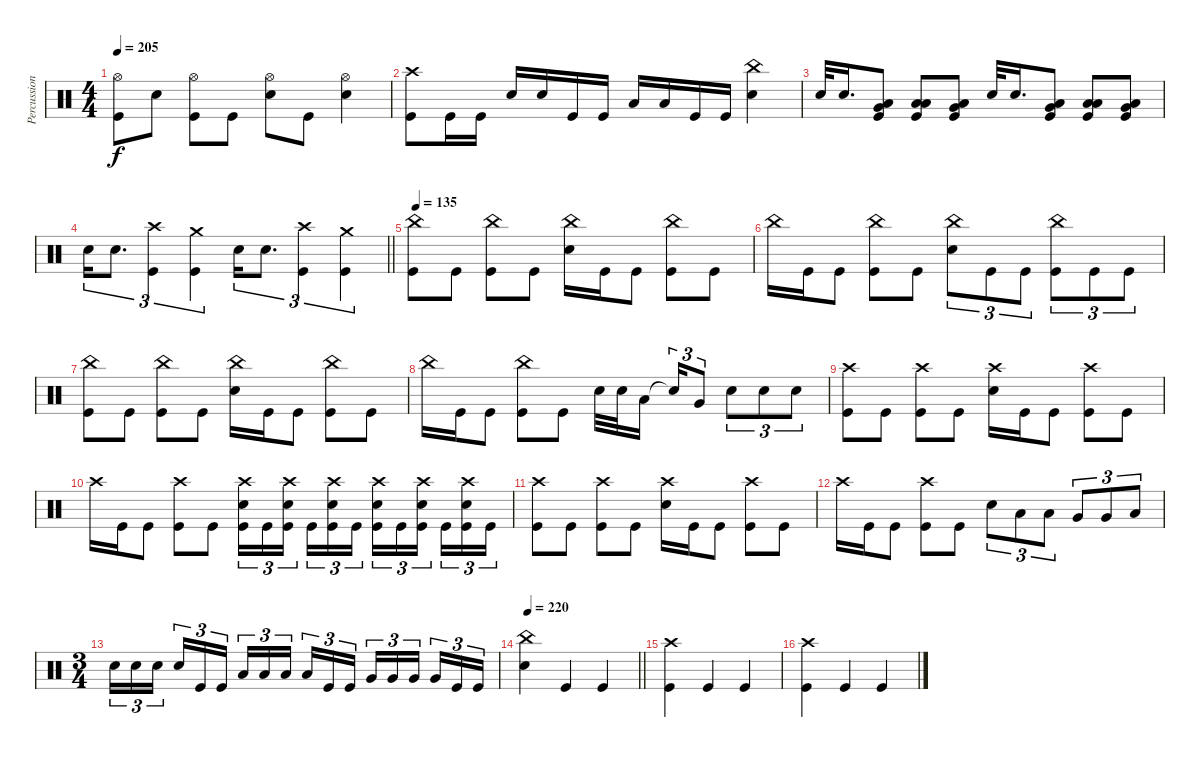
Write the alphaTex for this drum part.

\track ("Percussion" "Percussion") {instrument percussion}
\staff {score}
\articulation defaults
\ts (4 4)
\tempo 205
\clef neutral
\ks c
("Hi-Hat (open)" "Kick (hit)").8{dy f} "Electric Snare (hit)".8 ("Hi-Hat (open)" "Kick (hit)").8 "Kick (hit)".8 ("Hi-Hat (open)" "Electric Snare (hit)").8 "Kick (hit)".8 ("Hi-Hat (open)" "Electric Snare (hit)").4 |
("Crash high (hit)" "Kick (hit)").8 "Kick (hit)".16 "Kick (hit)".16 "Electric Snare (hit)".16 "Electric Snare (hit)".16 "Kick (hit)".16 "Kick (hit)".16 "Low Tom (hit)".16 "Low Tom (hit)".16 "Kick (hit)".16 "Kick (hit)".16 ("China (hit)" "Electric Snare (hit)").4 |
"Electric Snare (hit)".32 "Electric Snare (hit)".16{d} ("Low Tom (hit)" "Very Low Tom (hit)" "Kick (hit)").8 ("Low Tom (hit)" "Low Floor Tom (hit)" "Kick (hit)").8 ("Very Low Tom (hit)" "Low Floor Tom (hit)" "Kick (hit)").8 "Electric Snare (hit)".32 "Electric Snare (hit)".16{d} ("Low Tom (hit)" "Very Low Tom (hit)" "Kick (hit)").8 ("Low Tom (hit)" "Low Floor Tom (hit)" "Kick (hit)").8 ("Very Low Tom (hit)" "Low Floor Tom (hit)" "Kick (hit)").8 |
\barLineRight lightlight "Electric Snare (hit)".16{tu (3 2)} "Electric Snare (hit)".8{d tu (3 2)}
("Crash high (hit)" "Kick (hit)").4{tu (3 2)} ("Crash medium (hit)" "Kick (hit)").4{tu (3 2)} "Electric Snare (hit)".16{tu (3 2)} "Electric Snare (hit)".8{d tu (3 2)} ("Crash high (hit)" "Kick (hit)").4{tu (3 2)} ("Crash medium (hit)" "Kick (hit)").4{tu (3 2)} |
\tempo 135
("China (hit)" "Kick (hit)").8 "Kick (hit)".8 ("China (hit)" "Kick (hit)").8 "Kick (hit)".8 ("China (hit)" "Electric Snare (hit)").16 "Kick (hit)".16 "Kick (hit)".8 ("China (hit)" "Kick (hit)").8 "Kick (hit)".8 |
"China (hit)".16 "Kick (hit)".16 "Kick (hit)".8 ("China (hit)" "Kick (hit)").8 "Kick (hit)".8 ("China (hit)" "Electric Snare (hit)").8{tu (3 2)} "Kick (hit)".8{tu (3 2)} "Kick (hit)".8{tu (3 2)} ("China (hit)" "Kick (hit)").8{tu (3 2)} "Kick (hit)".8{tu (3 2)} "Kick (hit)".8{tu (3 2)} |
("China (hit)" "Kick (hit)").8 "Kick (hit)".8 ("China (hit)" "Kick (hit)").8 "Kick (hit)".8 ("China (hit)" "Electric Snare (hit)").16 "Kick (hit)".16 "Kick (hit)".8 ("China (hit)" "Kick (hit)").8 "Kick (hit)".8 |
"China (hit)".16 "Kick (hit)".16 "Kick (hit)".8 ("China (hit)" "Kick (hit)").8 "Kick (hit)".8 "Electric Snare (hit)".32 "Electric Snare (hit)".32 "Low Tom (hit)".16{beam splitsecondary} "Snare (hit)"{t}.16{tu (3 2)} "Very Low Tom (hit)".8{tu (3 2)} "Electric Snare (hit)".8{tu (3 2)} "Electric Snare (hit)".8{tu (3 2)} "Electric Snare (hit)".8{tu (3 2)} |
("Crash high (hit)" "Kick (hit)").8 "Kick (hit)".8 ("Crash high (hit)" "Kick (hit)").8 "Kick (hit)".8 ("Crash high (hit)" "Electric Snare (hit)").16 "Kick (hit)".16 "Kick (hit)".8 ("Crash high (hit)" "Kick (hit)").8 "Kick (hit)".8 |
"Crash high (hit)".16 "Kick (hit)".16 "Kick (hit)".8 ("Crash high (hit)" "Kick (hit)").8 "Kick (hit)".8 ("Crash high (hit)" "Electric Snare (hit)" "Kick (hit)").16{tu (3 2)} "Kick (hit)".16{tu (3 2)} ("Crash high (hit)" "Electric Snare (hit)" "Kick (hit)").16{tu (3 2) beam splitsecondary} "Kick (hit)".16{tu (3 2)} ("Crash high (hit)" "Electric Snare (hit)" "Kick (hit)").16{tu (3 2)} "Kick (hit)".16{tu (3 2)} ("Crash high (hit)" "Electric Snare (hit)" "Kick (hit)").16{tu (3 2)} "Kick (hit)".16{tu (3 2)} ("Crash high (hit)" "Electric Snare (hit)" "Kick (hit)").16{tu (3 2) beam splitsecondary} "Kick (hit)".16{tu (3 2)} ("Crash high (hit)" "Electric Snare (hit)" "Kick (hit)").16{tu (3 2)} "Kick (hit)".16{tu (3 2)} |
("Crash high (hit)" "Kick (hit)").8 "Kick (hit)".8 ("Crash high (hit)" "Kick (hit)").8 "Kick (hit)".8 ("Crash high (hit)" "Electric Snare (hit)").16 "Kick (hit)".16 "Kick (hit)".8 ("Crash high (hit)" "Kick (hit)").8 "Kick (hit)".8 |
"Crash high (hit)".16 "Kick (hit)".16 "Kick (hit)".8 ("Crash high (hit)" "Kick (hit)").8 "Kick (hit)".8 "Electric Snare (hit)".8{tu (3 2)} "Low Tom (hit)".8{tu (3 2)} "Low Tom (hit)".8{tu (3 2)} "Very Low Tom (hit)".8{tu (3 2)} "Very Low Tom (hit)".8{tu (3 2)} "Low Floor Tom (hit)".8{tu (3 2)} |
\ts (3 4)
"Electric Snare (hit)".16{tu (3 2)} "Electric Snare (hit)".16{tu (3 2)} "Electric Snare (hit)".16{tu (3 2) beam splitsecondary} "Electric Snare (hit)".16{tu (3 2)} "Kick (hit)".16{tu (3 2)} "Kick (hit)".16{tu (3 2)} "Low Tom (hit)".16{tu (3 2)} "Low Tom (hit)".16{tu (3 2)} "Low Tom (hit)".16{tu (3 2) beam splitsecondary} "Low Tom (hit)".16{tu (3 2)} "Kick (hit)".16{tu (3 2)} "Kick (hit)".16{tu (3 2)} "Very Low Tom (hit)".16{tu (3 2)} "Very Low Tom (hit)".16{tu (3 2)} "Very Low Tom (hit)".16{tu (3 2) beam splitsecondary} "Very Low Tom (hit)".16{tu (3 2)} "Kick (hit)".16{tu (3 2)} "Kick (hit)".16{tu (3 2)} |
\tempo 220
\barLineRight lightlight
("China (hit)" "Electric Snare (hit)").4 "Kick (hit)".4 "Kick (hit)".4 |
("Crash high (hit)" "Kick (hit)").4 "Kick (hit)".4 "Kick (hit)".4 |
("Crash high (hit)" "Kick (hit)").4 "Kick (hit)".4 "Kick (hit)".4
